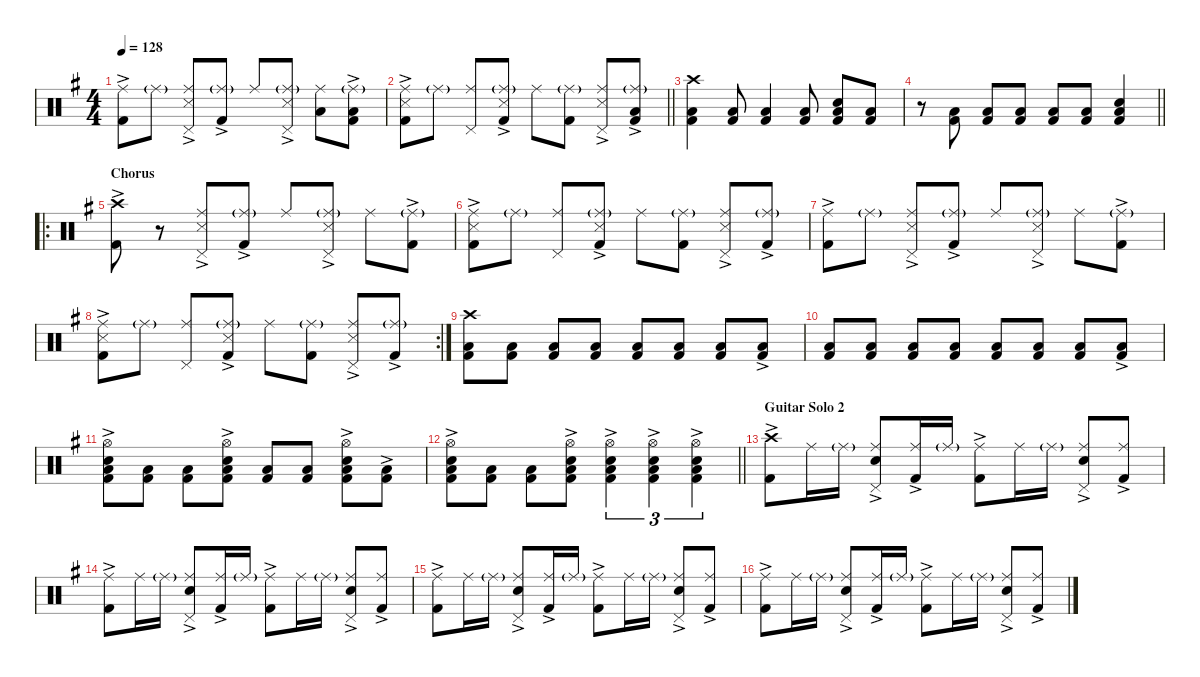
\defaultSystemsLayout 4
\hideDynamics
\bracketExtendMode nobrackets
\singleTrackTrackNamePolicy hidden
\multiTrackTrackNamePolicy hidden
\firstSystemTrackNameMode fullname
\firstSystemTrackNameOrientation horizontal
\otherSystemsTrackNameOrientation horizontal
\track ("Drums" "drm.") {instrument percussion}
\staff {score}
\articulation defaults
\ts (4 4)
\tempo 128
\clef neutral
\ks g
("Ride (middle)"{acc forcenatural} "Kick (hit) 2"{ac acc forcenatural}).8{dy f beam Down} "Ride (middle)"{g acc forcenatural}.8{dy mf beam Down} ("Ride (middle)"{acc forcenatural} "Pedal Hi-Hat (hit)"{acc forcenatural} "Snare (side stick) 3"{ac acc forcenatural}).8{dy f beam Up} ("Ride (middle)"{g acc forcenatural} "Kick (hit) 2"{ac acc forcenatural}).8{dy mf beam Up} "Ride (middle)"{acc forcenatural}.8{dy f beam Up} ("Ride (middle)"{g acc forcenatural} "Pedal Hi-Hat (hit)"{acc forcenatural} "Snare (side stick) 3"{ac acc forcenatural}).8{beam Up} ("Ride (middle)"{acc forcenatural} "Low Tom (hit)"{acc forcenatural}).8{beam Down} ("Ride (middle)"{g acc forcenatural} "Low Floor Tom (hit)"{acc forcenatural} "Kick (hit) 2"{ac acc forcenatural}).8{beam Down} |
\barLineRight lightlight
("Ride (middle)"{acc forcenatural} "Snare (side stick) 3"{ac acc forcenatural} "Kick (hit) 2"{ac acc forcenatural}).8{beam Down} "Ride (middle)"{g acc forcenatural}.8{dy mf beam Down} ("Ride (middle)"{acc forcenatural} "Pedal Hi-Hat (hit)"{acc forcenatural}).8{dy f beam Up} ("Ride (middle)"{g acc forcenatural} "Snare (side stick) 3"{ac acc forcenatural} "Kick (hit) 2"{ac acc forcenatural}).8{dy mf beam Up} "Ride (middle)"{acc forcenatural}.8{dy f beam Down} ("Ride (middle)"{g acc forcenatural} "Kick (hit) 2"{acc forcenatural}).8{beam Down} ("Ride (middle)"{acc forcenatural} "Pedal Hi-Hat (hit)"{acc forcenatural} "Snare (side stick) 3"{ac acc forcenatural}).8{beam Up} ("Ride (middle)"{g acc forcenatural} "Low Floor Tom (hit)"{acc forcenatural} "Kick (hit) 2"{ac acc forcenatural}).8{beam Up} |
("Crash high (hit)"{acc forcenatural} "Low Floor Tom (hit)"{acc forcenatural} "Kick (hit) 2"{acc forcenatural}).4{beam Down} ("Low Tom (hit)"{acc forcenatural} "Kick (hit) 2"{acc forcenatural}).8{beam Up} ("Low Floor Tom (hit)"{acc forcenatural} "Kick (hit) 2"{acc forcenatural}).4{beam Up} ("Low Tom (hit)"{acc forcenatural} "Kick (hit) 2"{acc forcenatural}).8{beam Up} ("Snare (hit) 2"{acc forcenatural} "Low Floor Tom (hit)"{acc forcenatural} "Kick (hit) 2"{acc forcenatural}).8{beam Up} ("Low Tom (hit)"{acc forcenatural} "Kick (hit) 2"{acc forcenatural}).8{beam Up} |
\barLineRight lightlight
r.8{beam Down} ("Low Tom (hit)"{acc forcenatural} "Kick (hit) 2"{acc forcenatural}).8{beam Up} ("Low Floor Tom (hit)"{acc forcenatural} "Kick (hit) 2"{acc forcenatural}).8{beam Up} ("Low Tom (hit)"{acc forcenatural} "Kick (hit) 2"{acc forcenatural}).8{beam Up} ("Low Floor Tom (hit)"{acc forcenatural} "Kick (hit) 2"{acc forcenatural}).8{beam Up} ("Low Tom (hit)"{acc forcenatural} "Kick (hit) 2"{acc forcenatural}).8{beam Up} ("Snare (hit) 2"{acc forcenatural} "Low Floor Tom (hit)"{acc forcenatural} "Kick (hit) 2"{acc forcenatural}).4{beam Up} |
\ro
\section ("" "Chorus")
("Crash high (hit)"{acc forcenatural} "Kick (hit) 2"{ac acc forcenatural}).8{beam Down} r.8{beam Down} ("Ride (middle)"{acc forcenatural} "Pedal Hi-Hat (hit)"{acc forcenatural} "Snare (side stick) 3"{ac acc forcenatural}).8{beam Up} ("Ride (middle)"{g acc forcenatural} "Kick (hit) 2"{ac acc forcenatural}).8{dy mf beam Up} "Ride (middle)"{acc forcenatural}.8{dy f beam Up} ("Ride (middle)"{g acc forcenatural} "Pedal Hi-Hat (hit)"{acc forcenatural} "Snare (side stick) 3"{ac acc forcenatural}).8{beam Up} "Ride (middle)"{acc forcenatural}.8{beam Down} ("Ride (middle)"{g acc forcenatural} "Kick (hit) 2"{ac acc forcenatural}).8{dy mf beam Down} |
("Ride (middle)"{acc forcenatural} "Snare (side stick) 3"{ac acc forcenatural} "Kick (hit) 2"{ac acc forcenatural}).8{dy f beam Down} "Ride (middle)"{g acc forcenatural}.8{dy mf beam Down} ("Ride (middle)"{acc forcenatural} "Pedal Hi-Hat (hit)"{acc forcenatural}).8{dy f beam Up} ("Ride (middle)"{g acc forcenatural} "Snare (side stick) 3"{ac acc forcenatural} "Kick (hit) 2"{ac acc forcenatural}).8{dy mf beam Up} "Ride (middle)"{acc forcenatural}.8{dy f beam Down} ("Ride (middle)"{g acc forcenatural} "Kick (hit) 2"{acc forcenatural}).8{beam Down} ("Ride (middle)"{acc forcenatural} "Pedal Hi-Hat (hit)"{acc forcenatural} "Snare (side stick) 3"{ac acc forcenatural}).8{beam Up} ("Ride (middle)"{g acc forcenatural} "Kick (hit) 2"{ac acc forcenatural}).8{dy mf beam Up} |
("Ride (middle)"{acc forcenatural} "Kick (hit) 2"{ac acc forcenatural}).8{dy f beam Down} "Ride (middle)"{g acc forcenatural}.8{dy mf beam Down} ("Ride (middle)"{acc forcenatural} "Pedal Hi-Hat (hit)"{acc forcenatural} "Snare (side stick) 3"{ac acc forcenatural}).8{dy f beam Up} ("Ride (middle)"{g acc forcenatural} "Kick (hit) 2"{ac acc forcenatural}).8{dy mf beam Up} "Ride (middle)"{acc forcenatural}.8{dy f beam Up} ("Ride (middle)"{g acc forcenatural} "Pedal Hi-Hat (hit)"{acc forcenatural} "Snare (side stick) 3"{ac acc forcenatural}).8{beam Up} "Ride (middle)"{acc forcenatural}.8{beam Down} ("Ride (middle)"{g acc forcenatural} "Kick (hit) 2"{ac acc forcenatural}).8{dy mf beam Down} |
\rc 2
("Ride (middle)"{acc forcenatural} "Snare (side stick) 3"{ac acc forcenatural} "Kick (hit) 2"{ac acc forcenatural}).8{dy f beam Down} "Ride (middle)"{g acc forcenatural}.8{dy mf beam Down} ("Ride (middle)"{acc forcenatural} "Pedal Hi-Hat (hit)"{acc forcenatural}).8{dy f beam Up} ("Ride (middle)"{g acc forcenatural} "Snare (side stick) 3"{ac acc forcenatural} "Kick (hit) 2"{ac acc forcenatural}).8{dy mf beam Up} "Ride (middle)"{acc forcenatural}.8{dy f beam Down} ("Ride (middle)"{g acc forcenatural} "Kick (hit) 2"{acc forcenatural}).8{beam Down} ("Ride (middle)"{acc forcenatural} "Pedal Hi-Hat (hit)"{acc forcenatural} "Snare (side stick) 3"{ac acc forcenatural}).8{beam Up} ("Ride (middle)"{g acc forcenatural} "Kick (hit) 2"{ac acc forcenatural}).8{dy mf beam Up} |
("Crash high (hit)"{acc forcenatural} "Low Floor Tom (hit)"{acc forcenatural} "Kick (hit) 2"{acc forcenatural}).8{dy f beam Down} ("Low Floor Tom (hit)"{acc forcenatural} "Kick (hit) 2"{acc forcenatural}).8{beam Down} ("Low Floor Tom (hit)"{acc forcenatural} "Kick (hit) 2"{acc forcenatural}).8{beam Up} ("Low Floor Tom (hit)"{acc forcenatural} "Kick (hit) 2"{acc forcenatural}).8{beam Up} ("Low Floor Tom (hit)"{acc forcenatural} "Kick (hit) 2"{acc forcenatural}).8{beam Up} ("Low Floor Tom (hit)"{acc forcenatural} "Kick (hit) 2"{acc forcenatural}).8{beam Up} ("Low Floor Tom (hit)"{acc forcenatural} "Kick (hit) 2"{acc forcenatural}).8{beam Up} ("Low Floor Tom (hit)"{acc forcenatural} "Kick (hit) 2"{ac acc forcenatural}).8{beam Up} |
("Low Floor Tom (hit)"{acc forcenatural} "Kick (hit) 2"{acc forcenatural}).8{beam Up} ("Low Floor Tom (hit)"{acc forcenatural} "Kick (hit) 2"{acc forcenatural}).8{beam Up} ("Low Floor Tom (hit)"{acc forcenatural} "Kick (hit) 2"{acc forcenatural}).8{beam Up} ("Low Floor Tom (hit)"{acc forcenatural} "Kick (hit) 2"{acc forcenatural}).8{beam Up} ("Low Floor Tom (hit)"{acc forcenatural} "Kick (hit) 2"{acc forcenatural}).8{beam Up} ("Low Floor Tom (hit)"{acc forcenatural} "Kick (hit) 2"{acc forcenatural}).8{beam Up} ("Low Floor Tom (hit)"{acc forcenatural} "Kick (hit) 2"{acc forcenatural}).8{beam Up} ("Low Floor Tom (hit)"{acc forcenatural} "Kick (hit) 2"{ac acc forcenatural}).8{beam Up} |
("Hi-Hat (open)"{acc forcenatural} "Snare (hit) 2"{ac acc forcenatural} "Low Floor Tom (hit)"{acc forcenatural} "Kick (hit) 2"{acc forcenatural}).8{beam Down} ("Low Floor Tom (hit)"{acc forcenatural} "Kick (hit) 2"{acc forcenatural}).8{beam Down} ("Low Floor Tom (hit)"{acc forcenatural} "Kick (hit) 2"{acc forcenatural}).8{beam Down} ("Hi-Hat (open)"{acc forcenatural} "Snare (hit) 2"{ac acc forcenatural} "Low Floor Tom (hit)"{acc forcenatural} "Kick (hit) 2"{acc forcenatural}).8{beam Down} ("Low Floor Tom (hit)"{acc forcenatural} "Kick (hit) 2"{acc forcenatural}).8{beam Up} ("Low Floor Tom (hit)"{acc forcenatural} "Kick (hit) 2"{acc forcenatural}).8{beam Up} ("Hi-Hat (open)"{acc forcenatural} "Snare (hit) 2"{ac acc forcenatural} "Low Floor Tom (hit)"{acc forcenatural} "Kick (hit) 2"{acc forcenatural}).8{beam Down} ("Low Floor Tom (hit)"{acc forcenatural} "Kick (hit) 2"{ac acc forcenatural}).8{beam Down} |
\barLineRight lightlight
("Hi-Hat (open)"{acc forcenatural} "Snare (hit) 2"{ac acc forcenatural} "Low Floor Tom (hit)"{acc forcenatural} "Kick (hit) 2"{acc forcenatural}).8{beam Down} ("Low Floor Tom (hit)"{acc forcenatural} "Kick (hit) 2"{acc forcenatural}).8{beam Down} ("Low Floor Tom (hit)"{acc forcenatural} "Kick (hit) 2"{acc forcenatural}).8{beam Down} ("Hi-Hat (open)"{acc forcenatural} "Snare (hit) 2"{ac acc forcenatural} "Low Floor Tom (hit)"{acc forcenatural} "Kick (hit) 2"{acc forcenatural}).8{beam Down} ("Hi-Hat (open)"{acc forcenatural} "Snare (hit) 2"{ac acc forcenatural} "Low Floor Tom (hit)"{acc forcenatural} "Kick (hit) 2"{acc forcenatural}).4{tu (3 2) beam Down} ("Hi-Hat (open)"{acc forcenatural} "Snare (hit) 2"{ac acc forcenatural} "Low Floor Tom (hit)"{acc forcenatural} "Kick (hit) 2"{acc forcenatural}).4{tu (3 2) beam Down} ("Hi-Hat (open)"{acc forcenatural} "Snare (hit) 2"{ac acc forcenatural} "Low Floor Tom (hit)"{acc forcenatural} "Kick (hit) 2"{acc forcenatural}).4{tu (3 2) beam Down} |
\section ("" "Guitar Solo 2")
("Crash high (hit)"{acc forcenatural} "Kick (hit) 2"{ac acc forcenatural}).8{beam Down} "Ride (middle)"{acc forcenatural}.16{beam Down} "Ride (middle)"{g acc forcenatural}.16{dy mf beam Down} ("Ride (middle)"{acc forcenatural} "Pedal Hi-Hat (hit)"{acc forcenatural} "Snare (hit) 2"{ac acc forcenatural}).8{dy f beam Up} ("Ride (middle)"{acc forcenatural} "Kick (hit) 2"{ac acc forcenatural}).16{beam Up} "Ride (middle)"{g acc forcenatural}.16{dy mf beam Up} ("Ride (middle)"{acc forcenatural} "Kick (hit) 2"{ac acc forcenatural}).8{dy f beam Down} "Ride (middle)"{acc forcenatural}.16{beam Down} "Ride (middle)"{g acc forcenatural}.16{dy mf beam Down} ("Ride (middle)"{acc forcenatural} "Pedal Hi-Hat (hit)"{acc forcenatural} "Snare (hit) 2"{ac acc forcenatural}).8{dy f beam Up} ("Ride (middle)"{acc forcenatural} "Kick (hit) 2"{ac acc forcenatural}).8{beam Up} |
("Ride (middle)"{acc forcenatural} "Kick (hit) 2"{ac acc forcenatural}).8{beam Down} "Ride (middle)"{acc forcenatural}.16{beam Down} "Ride (middle)"{g acc forcenatural}.16{dy mf beam Down} ("Ride (middle)"{acc forcenatural} "Pedal Hi-Hat (hit)"{acc forcenatural} "Snare (hit) 2"{ac acc forcenatural}).8{dy f beam Up} ("Ride (middle)"{acc forcenatural} "Kick (hit) 2"{ac acc forcenatural}).16{beam Up} "Ride (middle)"{g acc forcenatural}.16{dy mf beam Up} ("Ride (middle)"{acc forcenatural} "Kick (hit) 2"{ac acc forcenatural}).8{dy f beam Down} "Ride (middle)"{acc forcenatural}.16{beam Down} "Ride (middle)"{g acc forcenatural}.16{dy mf beam Down} ("Ride (middle)"{acc forcenatural} "Pedal Hi-Hat (hit)"{acc forcenatural} "Snare (hit) 2"{ac acc forcenatural}).8{dy f beam Up} ("Ride (middle)"{acc forcenatural} "Kick (hit) 2"{ac acc forcenatural}).8{beam Up} |
("Ride (middle)"{acc forcenatural} "Kick (hit) 2"{ac acc forcenatural}).8{beam Down} "Ride (middle)"{acc forcenatural}.16{beam Down} "Ride (middle)"{g acc forcenatural}.16{dy mf beam Down} ("Ride (middle)"{acc forcenatural} "Pedal Hi-Hat (hit)"{acc forcenatural} "Snare (hit) 2"{ac acc forcenatural}).8{dy f beam Up} ("Ride (middle)"{acc forcenatural} "Kick (hit) 2"{ac acc forcenatural}).16{beam Up} "Ride (middle)"{g acc forcenatural}.16{dy mf beam Up} ("Ride (middle)"{acc forcenatural} "Kick (hit) 2"{ac acc forcenatural}).8{dy f beam Down} "Ride (middle)"{acc forcenatural}.16{beam Down} "Ride (middle)"{g acc forcenatural}.16{dy mf beam Down} ("Ride (middle)"{acc forcenatural} "Pedal Hi-Hat (hit)"{acc forcenatural} "Snare (hit) 2"{ac acc forcenatural}).8{dy f beam Up} ("Ride (middle)"{acc forcenatural} "Kick (hit) 2"{ac acc forcenatural}).8{beam Up} |
("Ride (middle)"{acc forcenatural} "Kick (hit) 2"{ac acc forcenatural}).8{beam Down} "Ride (middle)"{acc forcenatural}.16{beam Down} "Ride (middle)"{g acc forcenatural}.16{dy mf beam Down} ("Ride (middle)"{acc forcenatural} "Pedal Hi-Hat (hit)"{acc forcenatural} "Snare (hit) 2"{ac acc forcenatural}).8{dy f beam Up} ("Ride (middle)"{acc forcenatural} "Kick (hit) 2"{ac acc forcenatural}).16{beam Up} "Ride (middle)"{g acc forcenatural}.16{dy mf beam Up} ("Ride (middle)"{acc forcenatural} "Kick (hit) 2"{ac acc forcenatural}).8{dy f beam Down} "Ride (middle)"{acc forcenatural}.16{beam Down} "Ride (middle)"{g acc forcenatural}.16{dy mf beam Down} ("Ride (middle)"{acc forcenatural} "Pedal Hi-Hat (hit)"{acc forcenatural} "Snare (hit) 2"{ac acc forcenatural}).8{dy f beam Up} ("Ride (middle)"{acc forcenatural} "Kick (hit) 2"{ac acc forcenatural}).8{beam Up}
